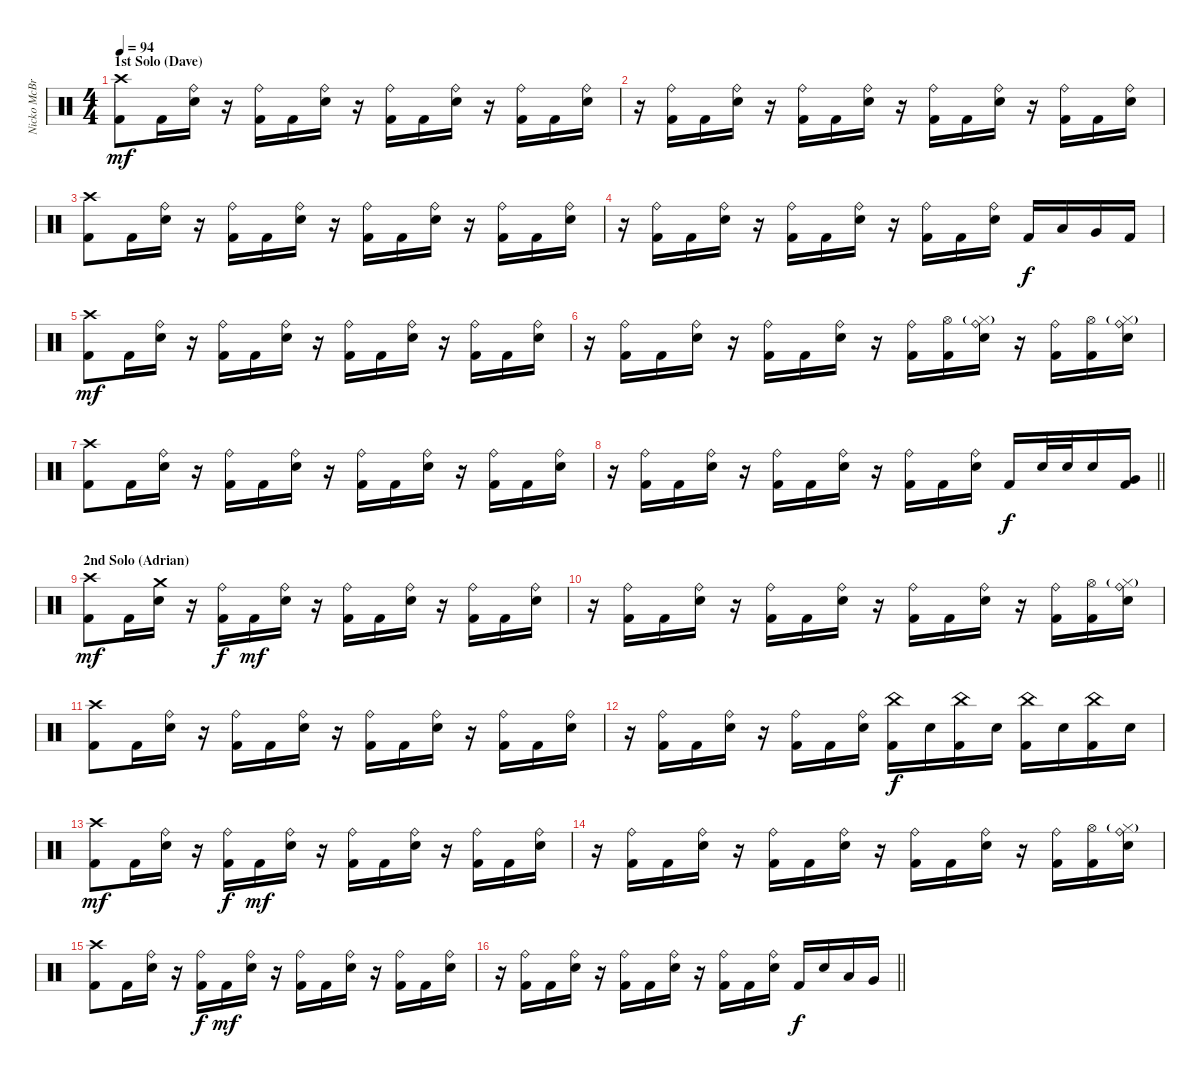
\track ("Nicko McBrian" "Nicko McBr") {instrument percussion}
\staff {score}
\articulation defaults
\ts (4 4)
\section ("" "1st Solo (Dave)")
\tempo 94
\clef neutral
\ks c
("Crash high (hit)" "Kick (hit) 2").8{dy mf} "Kick (hit) 2".16 ("Ride (bell)" "Snare (hit) 2").16 r.16 ("Ride (bell)" "Kick (hit) 2").16 "Kick (hit) 2".16 ("Ride (bell)" "Snare (hit) 2").16 r.16 ("Ride (bell)" "Kick (hit) 2").16 "Kick (hit) 2".16 ("Ride (bell)" "Snare (hit) 2").16 r.16 ("Ride (bell)" "Kick (hit) 2").16 "Kick (hit) 2".16 ("Ride (bell)" "Snare (hit) 2").16 |
r.16 ("Ride (bell)" "Kick (hit) 2").16 "Kick (hit) 2".16 ("Ride (bell)" "Snare (hit) 2").16 r.16 ("Ride (bell)" "Kick (hit) 2").16 "Kick (hit) 2".16 ("Ride (bell)" "Snare (hit) 2").16 r.16 ("Ride (bell)" "Kick (hit) 2").16 "Kick (hit) 2".16 ("Ride (bell)" "Snare (hit) 2").16 r.16 ("Ride (bell)" "Kick (hit) 2").16 "Kick (hit) 2".16 ("Ride (bell)" "Snare (hit) 2").16 |
("Crash high (hit)" "Kick (hit) 2").8 "Kick (hit) 2".16 ("Ride (bell)" "Snare (hit) 2").16 r.16 ("Ride (bell)" "Kick (hit) 2").16 "Kick (hit) 2".16 ("Ride (bell)" "Snare (hit) 2").16 r.16 ("Ride (bell)" "Kick (hit) 2").16 "Kick (hit) 2".16 ("Ride (bell)" "Snare (hit) 2").16 r.16 ("Ride (bell)" "Kick (hit) 2").16 "Kick (hit) 2".16 ("Ride (bell)" "Snare (hit) 2").16 |
r.16 ("Ride (bell)" "Kick (hit) 2").16 "Kick (hit) 2".16 ("Ride (bell)" "Snare (hit) 2").16 r.16 ("Ride (bell)" "Kick (hit) 2").16 "Kick (hit) 2".16 ("Ride (bell)" "Snare (hit) 2").16 r.16 ("Ride (bell)" "Kick (hit) 2").16 "Kick (hit) 2".16 ("Ride (bell)" "Snare (hit) 2").16 "Kick (hit) 2".16{dy f} "Low Tom (hit)".16 "Very Low Tom (hit)".16 "Kick (hit) 2".16 |
("Crash high (hit)" "Kick (hit) 2").8{dy mf} "Kick (hit) 2".16 ("Ride (bell)" "Snare (hit) 2").16 r.16 ("Ride (bell)" "Kick (hit) 2").16 "Kick (hit) 2".16 ("Ride (bell)" "Snare (hit) 2").16 r.16 ("Ride (bell)" "Kick (hit) 2").16 "Kick (hit) 2".16 ("Ride (bell)" "Snare (hit) 2").16 r.16 ("Ride (bell)" "Kick (hit) 2").16 "Kick (hit) 2".16 ("Ride (bell)" "Snare (hit) 2").16 |
r.16 ("Ride (bell)" "Kick (hit) 2").16 "Kick (hit) 2".16 ("Ride (bell)" "Snare (hit) 2").16 r.16 ("Ride (bell)" "Kick (hit) 2").16 "Kick (hit) 2".16 ("Ride (bell)" "Snare (hit) 2").16 r.16 ("Ride (bell)" "Kick (hit) 2").16 ("Hi-Hat (open)" "Kick (hit) 2").16 ("Ride (bell)" "Hi-Hat (closed)"{g} "Snare (hit) 2").16 r.16 ("Ride (bell)" "Kick (hit) 2").16 ("Hi-Hat (open)" "Kick (hit) 2").16 ("Ride (bell)" "Hi-Hat (closed)"{g} "Snare (hit) 2").16 |
("Crash high (hit)" "Kick (hit) 2").8 "Kick (hit) 2".16 ("Ride (bell)" "Snare (hit) 2").16 r.16 ("Ride (bell)" "Kick (hit) 2").16 "Kick (hit) 2".16 ("Ride (bell)" "Snare (hit) 2").16 r.16 ("Ride (bell)" "Kick (hit) 2").16 "Kick (hit) 2".16 ("Ride (bell)" "Snare (hit) 2").16 r.16 ("Ride (bell)" "Kick (hit) 2").16 "Kick (hit) 2".16 ("Ride (bell)" "Snare (hit) 2").16 |
\barLineRight lightlight
r.16 ("Ride (bell)" "Kick (hit) 2").16 "Kick (hit) 2".16 ("Ride (bell)" "Snare (hit) 2").16 r.16 ("Ride (bell)" "Kick (hit) 2").16 "Kick (hit) 2".16 ("Ride (bell)" "Snare (hit) 2").16 r.16 ("Ride (bell)" "Kick (hit) 2").16 "Kick (hit) 2".16 ("Ride (bell)" "Snare (hit) 2").16 "Kick (hit) 2".16{dy f} "Snare (hit) 2".32 "Snare (hit) 2".32 "Snare (hit) 2".16 ("Very Low Tom (hit)" "Kick (hit) 2").16 |
\section ("" "2nd Solo (Adrian)")
("Crash high (hit)" "Kick (hit) 2").8{dy mf} "Kick (hit) 2".16 ("Crash medium (hit)" "Snare (hit) 2").16 r.16 ("Ride (bell)" "Kick (hit) 2").16{dy f} "Kick (hit) 2".16{dy mf} ("Ride (bell)" "Snare (hit) 2").16 r.16 ("Ride (bell)" "Kick (hit) 2").16 "Kick (hit) 2".16 ("Ride (bell)" "Snare (hit) 2").16 r.16 ("Ride (bell)" "Kick (hit) 2").16 "Kick (hit) 2".16 ("Ride (bell)" "Snare (hit) 2").16 |
r.16 ("Ride (bell)" "Kick (hit) 2").16 "Kick (hit) 2".16 ("Ride (bell)" "Snare (hit) 2").16 r.16 ("Ride (bell)" "Kick (hit) 2").16 "Kick (hit) 2".16 ("Ride (bell)" "Snare (hit) 2").16 r.16 ("Ride (bell)" "Kick (hit) 2").16 "Kick (hit) 2".16 ("Ride (bell)" "Snare (hit) 2").16 r.16 ("Ride (bell)" "Kick (hit) 2").16 ("Hi-Hat (open)" "Kick (hit) 2").16 ("Ride (bell)" "Hi-Hat (closed)"{g} "Snare (hit) 2").16 |
("Crash high (hit)" "Kick (hit) 2").8 "Kick (hit) 2".16 ("Ride (bell)" "Snare (hit) 2").16 r.16 ("Ride (bell)" "Kick (hit) 2").16 "Kick (hit) 2".16 ("Ride (bell)" "Snare (hit) 2").16 r.16 ("Ride (bell)" "Kick (hit) 2").16 "Kick (hit) 2".16 ("Ride (bell)" "Snare (hit) 2").16 r.16 ("Ride (bell)" "Kick (hit) 2").16 "Kick (hit) 2".16 ("Ride (bell)" "Snare (hit) 2").16 |
r.16 ("Ride (bell)" "Kick (hit) 2").16 "Kick (hit) 2".16 ("Ride (bell)" "Snare (hit) 2").16 r.16 ("Ride (bell)" "Kick (hit) 2").16 "Kick (hit) 2".16 ("Ride (bell)" "Snare (hit) 2").16 ("China (hit)" "Kick (hit) 2").16{dy f} "Snare (hit) 2".16 ("China (hit)" "Kick (hit) 2").16 "Snare (hit) 2".16 ("China (hit)" "Kick (hit) 2").16 "Snare (hit) 2".16 ("China (hit)" "Kick (hit) 2").16 "Snare (hit) 2".16 |
("Crash high (hit)" "Kick (hit) 2").8{dy mf} "Kick (hit) 2".16 ("Ride (bell)" "Snare (hit) 2").16 r.16 ("Ride (bell)" "Kick (hit) 2").16{dy f} "Kick (hit) 2".16{dy mf} ("Ride (bell)" "Snare (hit) 2").16 r.16 ("Ride (bell)" "Kick (hit) 2").16 "Kick (hit) 2".16 ("Ride (bell)" "Snare (hit) 2").16 r.16 ("Ride (bell)" "Kick (hit) 2").16 "Kick (hit) 2".16 ("Ride (bell)" "Snare (hit) 2").16 |
r.16 ("Ride (bell)" "Kick (hit) 2").16 "Kick (hit) 2".16 ("Ride (bell)" "Snare (hit) 2").16 r.16 ("Ride (bell)" "Kick (hit) 2").16 "Kick (hit) 2".16 ("Ride (bell)" "Snare (hit) 2").16 r.16 ("Ride (bell)" "Kick (hit) 2").16 "Kick (hit) 2".16 ("Ride (bell)" "Snare (hit) 2").16 r.16 ("Ride (bell)" "Kick (hit) 2").16 ("Hi-Hat (open)" "Kick (hit) 2").16 ("Ride (bell)" "Hi-Hat (closed)"{g} "Snare (hit) 2").16 |
("Crash high (hit)" "Kick (hit) 2").8 "Kick (hit) 2".16 ("Ride (bell)" "Snare (hit) 2").16 r.16 ("Ride (bell)" "Kick (hit) 2").16{dy f} "Kick (hit) 2".16{dy mf} ("Ride (bell)" "Snare (hit) 2").16 r.16 ("Ride (bell)" "Kick (hit) 2").16 "Kick (hit) 2".16 ("Ride (bell)" "Snare (hit) 2").16 r.16 ("Ride (bell)" "Kick (hit) 2").16 "Kick (hit) 2".16 ("Ride (bell)" "Snare (hit) 2").16 |
\barLineRight lightlight
r.16 ("Ride (bell)" "Kick (hit) 2").16 "Kick (hit) 2".16 ("Ride (bell)" "Snare (hit) 2").16 r.16 ("Ride (bell)" "Kick (hit) 2").16 "Kick (hit) 2".16 ("Ride (bell)" "Snare (hit) 2").16 r.16 ("Ride (bell)" "Kick (hit) 2").16 "Kick (hit) 2".16 ("Ride (bell)" "Snare (hit) 2").16 "Kick (hit) 2".16{dy f} "Snare (hit) 2".16 "Low Tom (hit)".16 "Very Low Tom (hit)".16
